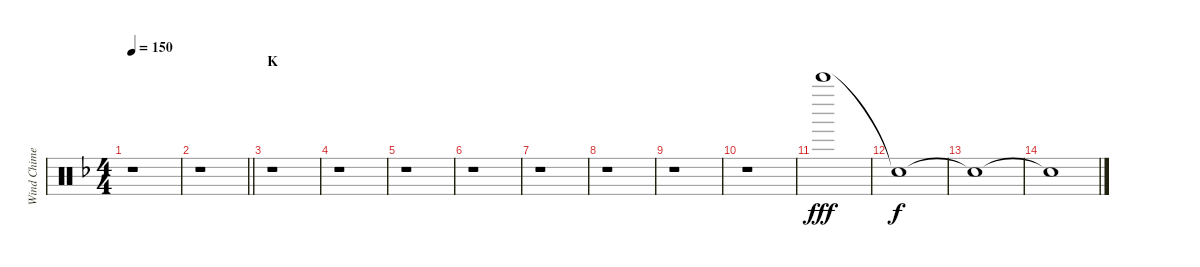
\track ("Wind Chime" "Wind Chime") {instrument percussion}
\staff {score}
\articulation defaults
\ts (4 4)
\tempo 150
\clef neutral
\ks f
r.1{dy f} |
\barLineRight lightlight
r.1 |
\section ("" "K")
r.1 |
r.1 |
r.1 |
r.1 |
r.1 |
r.1 |
r.1 |
r.1 |
"Bell Tree (hit)".1{dy fff} |
"Snare (hit)"{t}.1{dy f} |
"Snare (hit)"{t}.1 |
"Snare (hit)"{t}.1
